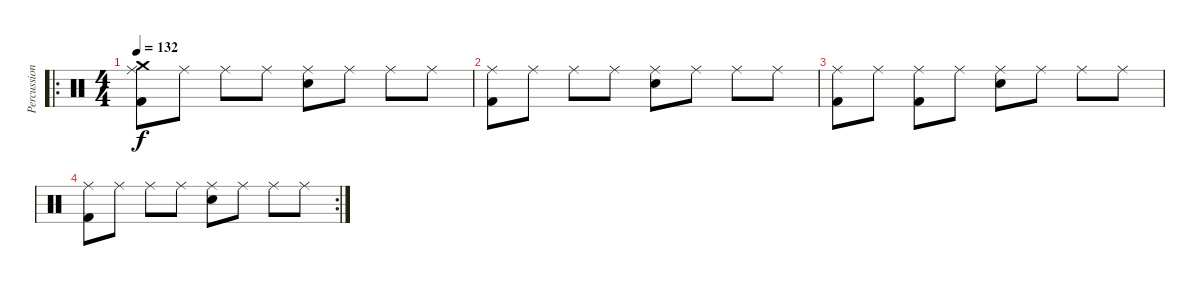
\track ("Percussioni" "Percussion") {instrument percussion}
\staff {score}
\articulation defaults
\ro
\ts (4 4)
\tempo 132
\clef neutral
\ks c
("Kick (hit) 2" "Ride (middle)" "Crash medium (hit)").8{dy f} "Ride (middle)".8 "Ride (middle)".8 "Ride (middle)".8 ("Electric Snare (hit)" "Ride (middle)").8 "Ride (middle)".8 "Ride (middle)".8 "Ride (middle)".8 |
("Kick (hit) 2" "Ride (middle)").8 "Ride (middle)".8 "Ride (middle)".8 "Ride (middle)".8 ("Electric Snare (hit)" "Ride (middle)").8 "Ride (middle)".8 "Ride (middle)".8 "Ride (middle)".8 |
("Kick (hit) 2" "Ride (middle)").8 "Ride (middle)".8 ("Kick (hit) 2" "Ride (middle)").8 "Ride (middle)".8 ("Electric Snare (hit)" "Ride (middle)").8 "Ride (middle)".8 "Ride (middle)".8 "Ride (middle)".8 |
\rc 2
("Kick (hit) 2" "Ride (middle)").8 "Ride (middle)".8 "Ride (middle)".8 "Ride (middle)".8 ("Electric Snare (hit)" "Ride (middle)").8 "Ride (middle)".8 "Ride (middle)".8 "Ride (middle)".8
